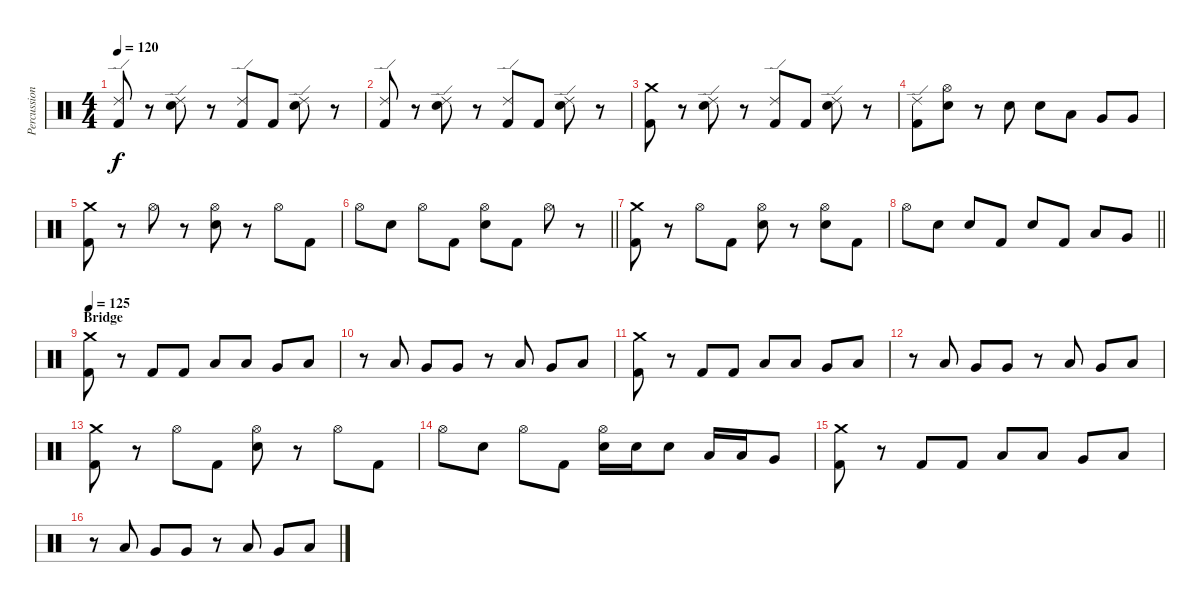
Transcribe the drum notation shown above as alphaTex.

\track ("Percussion" "Percussion") {instrument percussion}
\staff {score}
\articulation defaults
\ts (4 4)
\tempo 120
\clef neutral
\ks c
("Ride (edge) 2" "Kick (hit) 2").8{dy f} r.8 ("Ride (edge) 2" "Electric Snare (hit)").8 r.8 ("Ride (edge) 2" "Kick (hit) 2").8 "Kick (hit) 2".8 ("Ride (edge) 2" "Electric Snare (hit)").8 r.8 |
("Ride (edge) 2" "Kick (hit) 2").8 r.8 ("Ride (edge) 2" "Electric Snare (hit)").8 r.8 ("Ride (edge) 2" "Kick (hit) 2").8 "Kick (hit) 2".8 ("Ride (edge) 2" "Electric Snare (hit)").8 r.8 |
("Crash medium (hit)" "Kick (hit) 2").8 r.8 ("Ride (edge) 2" "Electric Snare (hit)").8 r.8 ("Ride (edge) 2" "Kick (hit) 2").8 "Kick (hit) 2".8 ("Ride (edge) 2" "Electric Snare (hit)").8 r.8 |
("Ride (edge) 2" "Kick (hit) 2").8 ("Hi-Hat (open)" "Electric Snare (hit)").8 r.8 "Electric Snare (hit)".8 "Electric Snare (hit)".8 "Low Tom (hit)".8 "Very Low Tom (hit)".8 "Very Low Tom (hit)".8 |
("Crash medium (hit)" "Kick (hit) 2").8 r.8 "Hi-Hat (open)".8 r.8 ("Hi-Hat (open)" "Electric Snare (hit)").8 r.8 "Hi-Hat (open)".8 "Kick (hit) 2".8 |
\barLineRight lightlight "Hi-Hat (open)".8 "Electric Snare (hit)".8 "Hi-Hat (open)".8 "Kick (hit) 2".8
("Hi-Hat (open)" "Electric Snare (hit)").8 "Kick (hit) 2".8 "Hi-Hat (open)".8 r.8 |
("Crash medium (hit)" "Kick (hit) 2").8 r.8 "Hi-Hat (open)".8 "Kick (hit) 2".8 ("Hi-Hat (open)" "Electric Snare (hit)").8 r.8 ("Hi-Hat (open)" "Electric Snare (hit)").8 "Kick (hit) 2".8 |
\barLineRight lightlight "Hi-Hat (open)".8 "Electric Snare (hit)".8 "Electric Snare (hit)".8 "Kick (hit) 2".8 "Electric Snare (hit)".8 "Kick (hit) 2".8 "Low Tom (hit)".8 "Very Low Tom (hit)".8
|
\section ("" "Bridge")
\tempo 125
("Crash medium (hit)" "Kick (hit) 2").8 r.8 "Kick (hit) 2".8 "Kick (hit) 2".8 "Low Tom (hit)".8 "Low Tom (hit)".8 "Very Low Tom (hit)".8 "Low Tom (hit)".8 |
r.8 "Low Tom (hit)".8 "Very Low Tom (hit)".8 "Very Low Tom (hit)".8 r.8 "Low Tom (hit)".8 "Very Low Tom (hit)".8 "Low Tom (hit)".8 |
("Crash medium (hit)" "Kick (hit) 2").8 r.8 "Kick (hit) 2".8 "Kick (hit) 2".8 "Low Tom (hit)".8 "Low Tom (hit)".8 "Very Low Tom (hit)".8 "Low Tom (hit)".8 |
r.8 "Low Tom (hit)".8 "Very Low Tom (hit)".8 "Very Low Tom (hit)".8 r.8 "Low Tom (hit)".8 "Very Low Tom (hit)".8 "Low Tom (hit)".8 |
("Kick (hit) 2" "Crash medium (hit)").8 r.8 "Hi-Hat (open)".8 "Kick (hit) 2".8 ("Hi-Hat (open)" "Electric Snare (hit)").8 r.8 "Hi-Hat (open)".8 "Kick (hit) 2".8 |
"Hi-Hat (open)".8 "Electric Snare (hit)".8 "Hi-Hat (open)".8 "Kick (hit) 2".8 ("Hi-Hat (open)" "Electric Snare (hit)").16 "Electric Snare (hit)".16 "Electric Snare (hit)".8 "Low Tom (hit)".16 "Low Tom (hit)".16 "Very Low Tom (hit)".8 |
("Crash medium (hit)" "Kick (hit) 2").8 r.8 "Kick (hit) 2".8 "Kick (hit) 2".8 "Low Tom (hit)".8 "Low Tom (hit)".8 "Very Low Tom (hit)".8 "Low Tom (hit)".8 |
r.8 "Low Tom (hit)".8 "Very Low Tom (hit)".8 "Very Low Tom (hit)".8 r.8 "Low Tom (hit)".8 "Very Low Tom (hit)".8 "Low Tom (hit)".8
